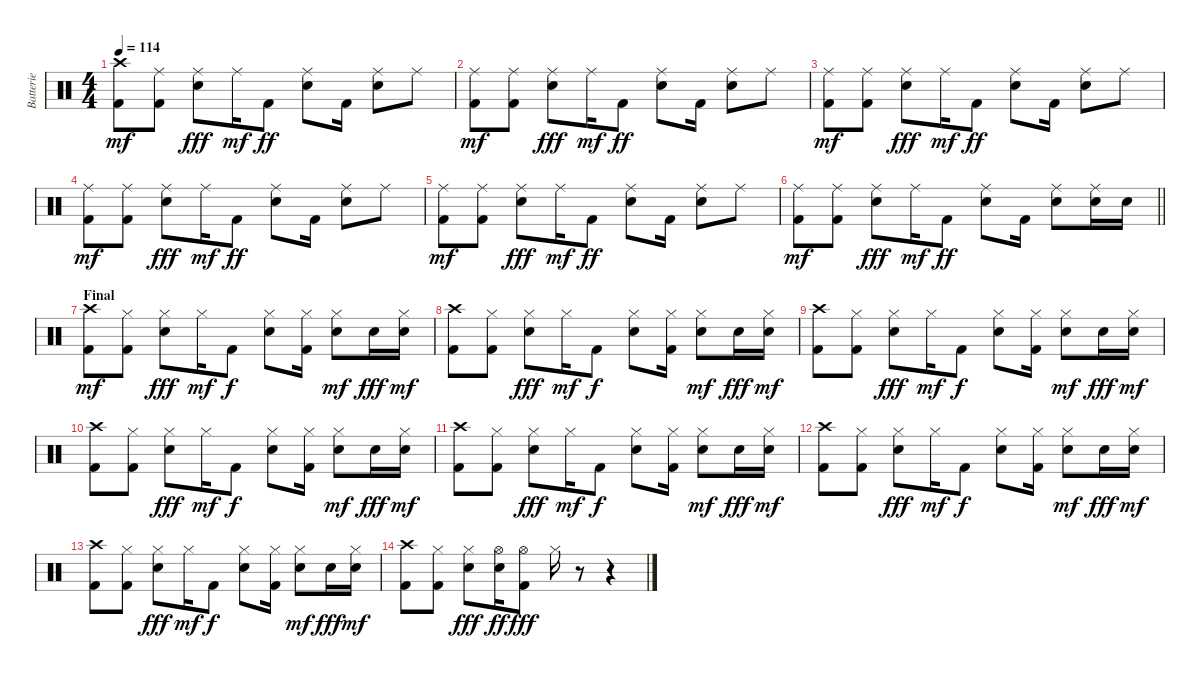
\track ("Batterie" "Batterie") {instrument percussion}
\staff {score}
\articulation defaults
\ts (4 4)
\tempo 114
\clef neutral
\ks c
("Crash high (hit)" "Kick (hit) 2").8{dy mf} ("Ride (middle)" "Kick (hit) 2").8 ("Ride (middle)" "Snare (hit) 2").8{dy fff} "Ride (middle)".16{dy mf} "Kick (hit) 2".8{dy ff} ("Ride (middle)" "Snare (hit) 2").8 "Kick (hit) 2".16 ("Ride (middle)" "Snare (hit) 2").8 "Ride (middle)".8 |
("Ride (middle)" "Kick (hit) 2").8{dy mf} ("Ride (middle)" "Kick (hit) 2").8 ("Ride (middle)" "Snare (hit) 2").8{dy fff} "Ride (middle)".16{dy mf} "Kick (hit) 2".8{dy ff} ("Ride (middle)" "Snare (hit) 2").8 "Kick (hit) 2".16 ("Ride (middle)" "Snare (hit) 2").8 "Ride (middle)".8 |
("Ride (middle)" "Kick (hit) 2").8{dy mf} ("Ride (middle)" "Kick (hit) 2").8 ("Ride (middle)" "Snare (hit) 2").8{dy fff} "Ride (middle)".16{dy mf} "Kick (hit) 2".8{dy ff} ("Ride (middle)" "Snare (hit) 2").8 "Kick (hit) 2".16 ("Ride (middle)" "Snare (hit) 2").8 "Ride (middle)".8 |
("Ride (middle)" "Kick (hit) 2").8{dy mf} ("Ride (middle)" "Kick (hit) 2").8 ("Ride (middle)" "Snare (hit) 2").8{dy fff} "Ride (middle)".16{dy mf} "Kick (hit) 2".8{dy ff} ("Ride (middle)" "Snare (hit) 2").8 "Kick (hit) 2".16 ("Ride (middle)" "Snare (hit) 2").8 "Ride (middle)".8 |
("Ride (middle)" "Kick (hit) 2").8{dy mf} ("Ride (middle)" "Kick (hit) 2").8 ("Ride (middle)" "Snare (hit) 2").8{dy fff} "Ride (middle)".16{dy mf} "Kick (hit) 2".8{dy ff} ("Ride (middle)" "Snare (hit) 2").8 "Kick (hit) 2".16 ("Ride (middle)" "Snare (hit) 2").8 "Ride (middle)".8 |
\barLineRight lightlight
("Ride (middle)" "Kick (hit) 2").8{dy mf} ("Ride (middle)" "Kick (hit) 2").8 ("Ride (middle)" "Snare (hit) 2").8{dy fff} "Ride (middle)".16{dy mf} "Kick (hit) 2".8{dy ff} ("Ride (middle)" "Snare (hit) 2").8 "Kick (hit) 2".16 ("Ride (middle)" "Snare (hit) 2").8 ("Ride (middle)" "Snare (hit) 2").16 "Snare (hit) 2".16 |
\section ("" "Final")
("Crash high (hit)" "Kick (hit) 2").8{dy mf} ("Hi-Hat (closed)" "Kick (hit) 2").8 ("Hi-Hat (closed)" "Snare (hit) 2").8{dy fff} "Hi-Hat (closed)".16{dy mf} "Kick (hit) 2".8{dy f} ("Hi-Hat (closed)" "Snare (hit) 2").8 ("Hi-Hat (closed)" "Kick (hit) 2").16 ("Hi-Hat (closed)" "Snare (hit) 2").8{dy mf} "Snare (hit) 2".16{dy fff} ("Hi-Hat (closed)" "Snare (hit) 2").16{dy mf} |
("Crash high (hit)" "Kick (hit) 2").8 ("Hi-Hat (closed)" "Kick (hit) 2").8 ("Hi-Hat (closed)" "Snare (hit) 2").8{dy fff} "Hi-Hat (closed)".16{dy mf} "Kick (hit) 2".8{dy f} ("Hi-Hat (closed)" "Snare (hit) 2").8 ("Hi-Hat (closed)" "Kick (hit) 2").16 ("Hi-Hat (closed)" "Snare (hit) 2").8{dy mf} "Snare (hit) 2".16{dy fff} ("Hi-Hat (closed)" "Snare (hit) 2").16{dy mf} |
("Crash high (hit)" "Kick (hit) 2").8 ("Hi-Hat (closed)" "Kick (hit) 2").8 ("Hi-Hat (closed)" "Snare (hit) 2").8{dy fff} "Hi-Hat (closed)".16{dy mf} "Kick (hit) 2".8{dy f} ("Hi-Hat (closed)" "Snare (hit) 2").8 ("Hi-Hat (closed)" "Kick (hit) 2").16 ("Hi-Hat (closed)" "Snare (hit) 2").8{dy mf} "Snare (hit) 2".16{dy fff} ("Hi-Hat (closed)" "Snare (hit) 2").16{dy mf} |
("Crash high (hit)" "Kick (hit) 2").8 ("Hi-Hat (closed)" "Kick (hit) 2").8 ("Hi-Hat (closed)" "Snare (hit) 2").8{dy fff} "Hi-Hat (closed)".16{dy mf} "Kick (hit) 2".8{dy f} ("Hi-Hat (closed)" "Snare (hit) 2").8 ("Hi-Hat (closed)" "Kick (hit) 2").16 ("Hi-Hat (closed)" "Snare (hit) 2").8{dy mf} "Snare (hit) 2".16{dy fff} ("Hi-Hat (closed)" "Snare (hit) 2").16{dy mf} |
("Crash high (hit)" "Kick (hit) 2").8 ("Hi-Hat (closed)" "Kick (hit) 2").8 ("Hi-Hat (closed)" "Snare (hit) 2").8{dy fff} "Hi-Hat (closed)".16{dy mf} "Kick (hit) 2".8{dy f} ("Hi-Hat (closed)" "Snare (hit) 2").8 ("Hi-Hat (closed)" "Kick (hit) 2").16 ("Hi-Hat (closed)" "Snare (hit) 2").8{dy mf} "Snare (hit) 2".16{dy fff} ("Hi-Hat (closed)" "Snare (hit) 2").16{dy mf} |
("Crash high (hit)" "Kick (hit) 2").8 ("Hi-Hat (closed)" "Kick (hit) 2").8 ("Hi-Hat (closed)" "Snare (hit) 2").8{dy fff} "Hi-Hat (closed)".16{dy mf} "Kick (hit) 2".8{dy f} ("Hi-Hat (closed)" "Snare (hit) 2").8 ("Hi-Hat (closed)" "Kick (hit) 2").16 ("Hi-Hat (closed)" "Snare (hit) 2").8{dy mf} "Snare (hit) 2".16{dy fff} ("Hi-Hat (closed)" "Snare (hit) 2").16{dy mf} |
("Crash high (hit)" "Kick (hit) 2").8 ("Hi-Hat (closed)" "Kick (hit) 2").8 ("Hi-Hat (closed)" "Snare (hit) 2").8{dy fff} "Hi-Hat (closed)".16{dy mf} "Kick (hit) 2".8{dy f} ("Hi-Hat (closed)" "Snare (hit) 2").8 ("Hi-Hat (closed)" "Kick (hit) 2").16 ("Hi-Hat (closed)" "Snare (hit) 2").8{dy mf} "Snare (hit) 2".16{dy fff} ("Hi-Hat (closed)" "Snare (hit) 2").16{dy mf} |
("Crash high (hit)" "Kick (hit) 2").8 ("Hi-Hat (closed)" "Kick (hit) 2").8 ("Hi-Hat (closed)" "Snare (hit) 2").8{dy fff} ("Hi-Hat (open)" "Snare (hit) 2").16{dy ff} ("Hi-Hat (open)" "Kick (hit) 2").8{dy fff} "Hi-Hat (closed)".16 r.8 r.4
